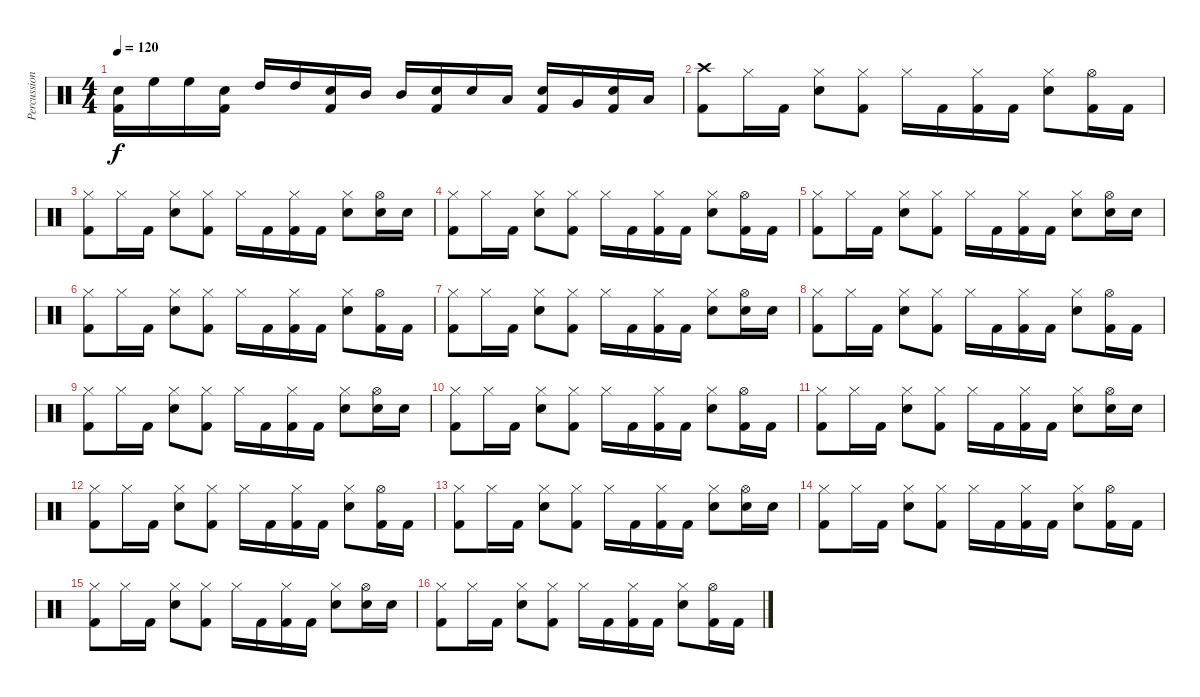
\track ("Percussion" "Percussion") {instrument percussion}
\staff {score}
\articulation defaults
\ts (4 4)
\tempo 120
\clef neutral
\ks c
("Electric Snare (hit)" "Kick (hit) 2").16{dy f} "High Floor Tom (hit)".16 "High Floor Tom (hit)".16 ("Electric Snare (hit)" "Kick (hit) 2").16 "High Tom (hit)".16 "High Tom (hit)".16 ("Electric Snare (hit)" "Kick (hit) 2").16 "Mid Tom (hit)".16 "Mid Tom (hit)".16 ("Electric Snare (hit)" "Kick (hit) 2").16 "Electric Snare (hit)".16 "Low Tom (hit)".16 ("Electric Snare (hit)" "Kick (hit) 2").16 "Very Low Tom (hit)".16 ("Electric Snare (hit)" "Kick (hit) 2").16 "Low Floor Tom (hit)".16 |
("Crash high (hit)" "Kick (hit) 2").8 "Hi-Hat (closed)".16 "Kick (hit) 2".16 ("Hi-Hat (closed)" "Snare (hit) 2").8 ("Hi-Hat (closed)" "Kick (hit) 2").8 "Hi-Hat (closed)".16 "Kick (hit) 2".16 ("Hi-Hat (closed)" "Kick (hit) 2").16 "Kick (hit) 2".16 ("Hi-Hat (closed)" "Snare (hit) 2").8 ("Hi-Hat (open)" "Kick (hit) 2").16 "Kick (hit) 2".16 |
("Hi-Hat (closed)" "Kick (hit) 2").8 "Hi-Hat (closed)".16 "Kick (hit) 2".16 ("Hi-Hat (closed)" "Snare (hit) 2").8 ("Hi-Hat (closed)" "Kick (hit) 2").8 "Hi-Hat (closed)".16 "Kick (hit) 2".16 ("Hi-Hat (closed)" "Kick (hit) 2").16 "Kick (hit) 2".16 ("Hi-Hat (closed)" "Snare (hit) 2").8 ("Hi-Hat (open)" "Snare (hit) 2").16 "Snare (hit) 2".16 |
("Hi-Hat (closed)" "Kick (hit) 2").8 "Hi-Hat (closed)".16 "Kick (hit) 2".16 ("Hi-Hat (closed)" "Snare (hit) 2").8 ("Hi-Hat (closed)" "Kick (hit) 2").8 "Hi-Hat (closed)".16 "Kick (hit) 2".16 ("Hi-Hat (closed)" "Kick (hit) 2").16 "Kick (hit) 2".16 ("Hi-Hat (closed)" "Snare (hit) 2").8 ("Hi-Hat (open)" "Kick (hit) 2").16 "Kick (hit) 2".16 |
("Hi-Hat (closed)" "Kick (hit) 2").8 "Hi-Hat (closed)".16 "Kick (hit) 2".16 ("Hi-Hat (closed)" "Snare (hit) 2").8 ("Hi-Hat (closed)" "Kick (hit) 2").8 "Hi-Hat (closed)".16 "Kick (hit) 2".16 ("Hi-Hat (closed)" "Kick (hit) 2").16 "Kick (hit) 2".16 ("Hi-Hat (closed)" "Snare (hit) 2").8 ("Hi-Hat (open)" "Snare (hit) 2").16 "Snare (hit) 2".16 |
("Hi-Hat (closed)" "Kick (hit) 2").8 "Hi-Hat (closed)".16 "Kick (hit) 2".16 ("Hi-Hat (closed)" "Snare (hit) 2").8 ("Hi-Hat (closed)" "Kick (hit) 2").8 "Hi-Hat (closed)".16 "Kick (hit) 2".16 ("Hi-Hat (closed)" "Kick (hit) 2").16 "Kick (hit) 2".16 ("Hi-Hat (closed)" "Snare (hit) 2").8 ("Hi-Hat (open)" "Kick (hit) 2").16 "Kick (hit) 2".16 |
("Hi-Hat (closed)" "Kick (hit) 2").8 "Hi-Hat (closed)".16 "Kick (hit) 2".16 ("Hi-Hat (closed)" "Snare (hit) 2").8 ("Hi-Hat (closed)" "Kick (hit) 2").8 "Hi-Hat (closed)".16 "Kick (hit) 2".16 ("Hi-Hat (closed)" "Kick (hit) 2").16 "Kick (hit) 2".16 ("Hi-Hat (closed)" "Snare (hit) 2").8 ("Hi-Hat (open)" "Snare (hit) 2").16 "Snare (hit) 2".16 |
("Hi-Hat (closed)" "Kick (hit) 2").8 "Hi-Hat (closed)".16 "Kick (hit) 2".16 ("Hi-Hat (closed)" "Snare (hit) 2").8 ("Hi-Hat (closed)" "Kick (hit) 2").8 "Hi-Hat (closed)".16 "Kick (hit) 2".16 ("Hi-Hat (closed)" "Kick (hit) 2").16 "Kick (hit) 2".16 ("Hi-Hat (closed)" "Snare (hit) 2").8 ("Hi-Hat (open)" "Kick (hit) 2").16 "Kick (hit) 2".16 |
("Hi-Hat (closed)" "Kick (hit) 2").8 "Hi-Hat (closed)".16 "Kick (hit) 2".16 ("Hi-Hat (closed)" "Snare (hit) 2").8 ("Hi-Hat (closed)" "Kick (hit) 2").8 "Hi-Hat (closed)".16 "Kick (hit) 2".16 ("Hi-Hat (closed)" "Kick (hit) 2").16 "Kick (hit) 2".16 ("Hi-Hat (closed)" "Snare (hit) 2").8 ("Hi-Hat (open)" "Snare (hit) 2").16 "Snare (hit) 2".16 |
("Hi-Hat (closed)" "Kick (hit) 2").8 "Hi-Hat (closed)".16 "Kick (hit) 2".16 ("Hi-Hat (closed)" "Snare (hit) 2").8 ("Hi-Hat (closed)" "Kick (hit) 2").8 "Hi-Hat (closed)".16 "Kick (hit) 2".16 ("Hi-Hat (closed)" "Kick (hit) 2").16 "Kick (hit) 2".16 ("Hi-Hat (closed)" "Snare (hit) 2").8 ("Hi-Hat (open)" "Kick (hit) 2").16 "Kick (hit) 2".16 |
("Hi-Hat (closed)" "Kick (hit) 2").8 "Hi-Hat (closed)".16 "Kick (hit) 2".16 ("Hi-Hat (closed)" "Snare (hit) 2").8 ("Hi-Hat (closed)" "Kick (hit) 2").8 "Hi-Hat (closed)".16 "Kick (hit) 2".16 ("Hi-Hat (closed)" "Kick (hit) 2").16 "Kick (hit) 2".16 ("Hi-Hat (closed)" "Snare (hit) 2").8 ("Hi-Hat (open)" "Snare (hit) 2").16 "Snare (hit) 2".16 |
("Hi-Hat (closed)" "Kick (hit) 2").8 "Hi-Hat (closed)".16 "Kick (hit) 2".16 ("Hi-Hat (closed)" "Snare (hit) 2").8 ("Hi-Hat (closed)" "Kick (hit) 2").8 "Hi-Hat (closed)".16 "Kick (hit) 2".16 ("Hi-Hat (closed)" "Kick (hit) 2").16 "Kick (hit) 2".16 ("Hi-Hat (closed)" "Snare (hit) 2").8 ("Hi-Hat (open)" "Kick (hit) 2").16 "Kick (hit) 2".16 |
("Hi-Hat (closed)" "Kick (hit) 2").8 "Hi-Hat (closed)".16 "Kick (hit) 2".16 ("Hi-Hat (closed)" "Snare (hit) 2").8 ("Hi-Hat (closed)" "Kick (hit) 2").8 "Hi-Hat (closed)".16 "Kick (hit) 2".16 ("Hi-Hat (closed)" "Kick (hit) 2").16 "Kick (hit) 2".16 ("Hi-Hat (closed)" "Snare (hit) 2").8 ("Hi-Hat (open)" "Snare (hit) 2").16 "Snare (hit) 2".16 |
("Hi-Hat (closed)" "Kick (hit) 2").8 "Hi-Hat (closed)".16 "Kick (hit) 2".16 ("Hi-Hat (closed)" "Snare (hit) 2").8 ("Hi-Hat (closed)" "Kick (hit) 2").8 "Hi-Hat (closed)".16 "Kick (hit) 2".16 ("Hi-Hat (closed)" "Kick (hit) 2").16 "Kick (hit) 2".16 ("Hi-Hat (closed)" "Snare (hit) 2").8 ("Hi-Hat (open)" "Kick (hit) 2").16 "Kick (hit) 2".16 |
("Hi-Hat (closed)" "Kick (hit) 2").8 "Hi-Hat (closed)".16 "Kick (hit) 2".16 ("Hi-Hat (closed)" "Snare (hit) 2").8 ("Hi-Hat (closed)" "Kick (hit) 2").8 "Hi-Hat (closed)".16 "Kick (hit) 2".16 ("Hi-Hat (closed)" "Kick (hit) 2").16 "Kick (hit) 2".16 ("Hi-Hat (closed)" "Snare (hit) 2").8 ("Hi-Hat (open)" "Snare (hit) 2").16 "Snare (hit) 2".16 |
("Hi-Hat (closed)" "Kick (hit) 2").8 "Hi-Hat (closed)".16 "Kick (hit) 2".16 ("Hi-Hat (closed)" "Snare (hit) 2").8 ("Hi-Hat (closed)" "Kick (hit) 2").8 "Hi-Hat (closed)".16 "Kick (hit) 2".16 ("Hi-Hat (closed)" "Kick (hit) 2").16 "Kick (hit) 2".16 ("Hi-Hat (closed)" "Snare (hit) 2").8 ("Hi-Hat (open)" "Kick (hit) 2").16 "Kick (hit) 2".16
